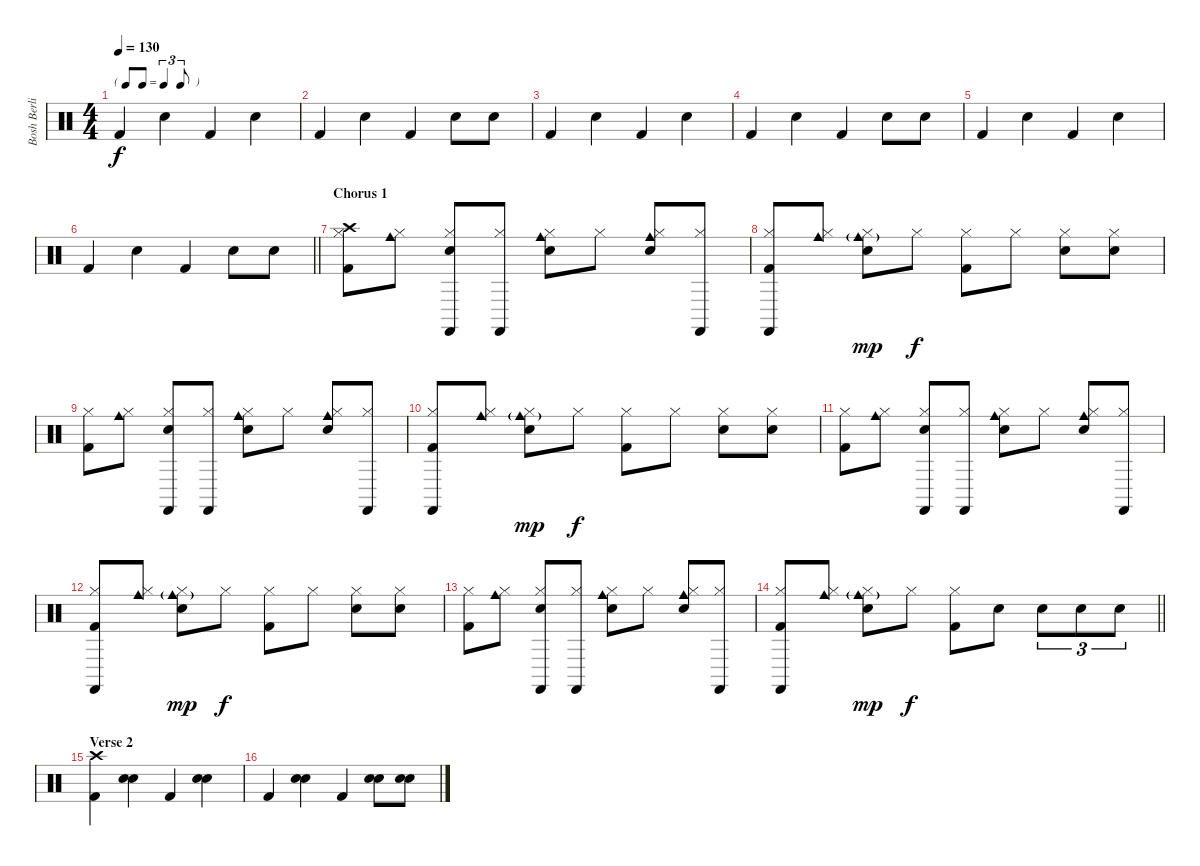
\track ("Bosh Berlin" "Bosh Berli") {instrument percussion}
\staff {score}
\articulation defaults
\ts (4 4)
\tf triplet8th
\tempo 130
\clef neutral
\ks c "Kick (hit) 2".4{dy f} "Snare (hit) 2".4 "Kick (hit) 2".4 "Snare (hit) 2".4
|
"Kick (hit) 2".4 "Snare (hit) 2".4 "Kick (hit) 2".4 "Snare (hit) 2".8 "Snare (hit) 2".8 |
"Kick (hit) 2".4 "Snare (hit) 2".4 "Kick (hit) 2".4 "Snare (hit) 2".4 |
"Kick (hit) 2".4 "Snare (hit) 2".4 "Kick (hit) 2".4 "Snare (hit) 2".8 "Snare (hit) 2".8 |
"Kick (hit) 2".4 "Snare (hit) 2".4 "Kick (hit) 2".4 "Snare (hit) 2".4 |
\barLineRight lightlight "Kick (hit) 2".4 "Snare (hit) 2".4 "Kick (hit) 2".4 "Snare (hit) 2".8 "Snare (hit) 2".8
|
\section ("" "Chorus 1")
("Crash high (hit)" "Hi-Hat (closed)" "Kick (hit) 2").8 ("Cowbell medium (hit)" "Hi-Hat (closed)").8 ("Castanets (hit)" "Hi-Hat (closed)" "Snare (hit) 2").8 ("Castanets (hit)" "Hi-Hat (closed)").8 ("Cowbell medium (hit)" "Hi-Hat (closed)" "Snare (hit) 2").8 "Hi-Hat (closed)".8 ("Cowbell medium (hit)" "Hi-Hat (closed)" "Snare (hit) 2").8 ("Castanets (hit)" "Hi-Hat (closed)").8 |
("Hi-Hat (closed)" "Castanets (hit)" "Kick (hit) 2").8 ("Hi-Hat (closed)" "Cowbell medium (hit)").8 ("Hi-Hat (closed)" "Cowbell medium (hit)"{g} "Snare (hit) 2").8{dy mp} "Hi-Hat (closed)".8{dy f} ("Hi-Hat (closed)" "Kick (hit) 2").8 "Hi-Hat (closed)".8 ("Hi-Hat (closed)" "Snare (hit) 2").8 ("Hi-Hat (closed)" "Snare (hit) 2").8 |
("Hi-Hat (closed)" "Kick (hit) 2").8 ("Cowbell medium (hit)" "Hi-Hat (closed)").8 ("Castanets (hit)" "Hi-Hat (closed)" "Snare (hit) 2").8 ("Castanets (hit)" "Hi-Hat (closed)").8 ("Cowbell medium (hit)" "Hi-Hat (closed)" "Snare (hit) 2").8 "Hi-Hat (closed)".8 ("Cowbell medium (hit)" "Hi-Hat (closed)" "Snare (hit) 2").8 ("Castanets (hit)" "Hi-Hat (closed)").8 |
("Hi-Hat (closed)" "Castanets (hit)" "Kick (hit) 2").8 ("Hi-Hat (closed)" "Cowbell medium (hit)").8 ("Hi-Hat (closed)" "Cowbell medium (hit)"{g} "Snare (hit) 2").8{dy mp} "Hi-Hat (closed)".8{dy f} ("Hi-Hat (closed)" "Kick (hit) 2").8 "Hi-Hat (closed)".8 ("Hi-Hat (closed)" "Snare (hit) 2").8 ("Hi-Hat (closed)" "Snare (hit) 2").8 |
("Hi-Hat (closed)" "Kick (hit) 2").8 ("Cowbell medium (hit)" "Hi-Hat (closed)").8 ("Castanets (hit)" "Hi-Hat (closed)" "Snare (hit) 2").8 ("Castanets (hit)" "Hi-Hat (closed)").8 ("Cowbell medium (hit)" "Hi-Hat (closed)" "Snare (hit) 2").8 "Hi-Hat (closed)".8 ("Cowbell medium (hit)" "Hi-Hat (closed)" "Snare (hit) 2").8 ("Castanets (hit)" "Hi-Hat (closed)").8 |
("Hi-Hat (closed)" "Castanets (hit)" "Kick (hit) 2").8 ("Hi-Hat (closed)" "Cowbell medium (hit)").8 ("Hi-Hat (closed)" "Cowbell medium (hit)"{g} "Snare (hit) 2").8{dy mp} "Hi-Hat (closed)".8{dy f} ("Hi-Hat (closed)" "Kick (hit) 2").8 "Hi-Hat (closed)".8 ("Hi-Hat (closed)" "Snare (hit) 2").8 ("Hi-Hat (closed)" "Snare (hit) 2").8 |
("Hi-Hat (closed)" "Kick (hit) 2").8 ("Cowbell medium (hit)" "Hi-Hat (closed)").8 ("Castanets (hit)" "Hi-Hat (closed)" "Snare (hit) 2").8 ("Castanets (hit)" "Hi-Hat (closed)").8 ("Cowbell medium (hit)" "Hi-Hat (closed)" "Snare (hit) 2").8 "Hi-Hat (closed)".8 ("Cowbell medium (hit)" "Hi-Hat (closed)" "Snare (hit) 2").8 ("Castanets (hit)" "Hi-Hat (closed)").8 |
\barLineRight lightlight
("Hi-Hat (closed)" "Castanets (hit)" "Kick (hit) 2").8 ("Hi-Hat (closed)" "Cowbell medium (hit)").8 ("Hi-Hat (closed)" "Cowbell medium (hit)"{g} "Snare (hit) 2").8{dy mp} "Hi-Hat (closed)".8{dy f} ("Hi-Hat (closed)" "Kick (hit) 2").8 "Snare (hit) 2".8 "Snare (hit) 2".8{tu (3 2)} "Snare (hit) 2".8{tu (3 2)} "Snare (hit) 2".8{tu (3 2)} |
\section ("" "Verse 2")
("Crash high (hit)" "Kick (hit) 2").4 ("Hand Clap (hit)" "Snare (hit) 2").4 "Kick (hit) 2".4 ("Hand Clap (hit)" "Snare (hit) 2").4 |
"Kick (hit) 2".4 ("Hand Clap (hit)" "Snare (hit) 2").4 "Kick (hit) 2".4 ("Hand Clap (hit)" "Snare (hit) 2").8 ("Hand Clap (hit)" "Snare (hit) 2").8
